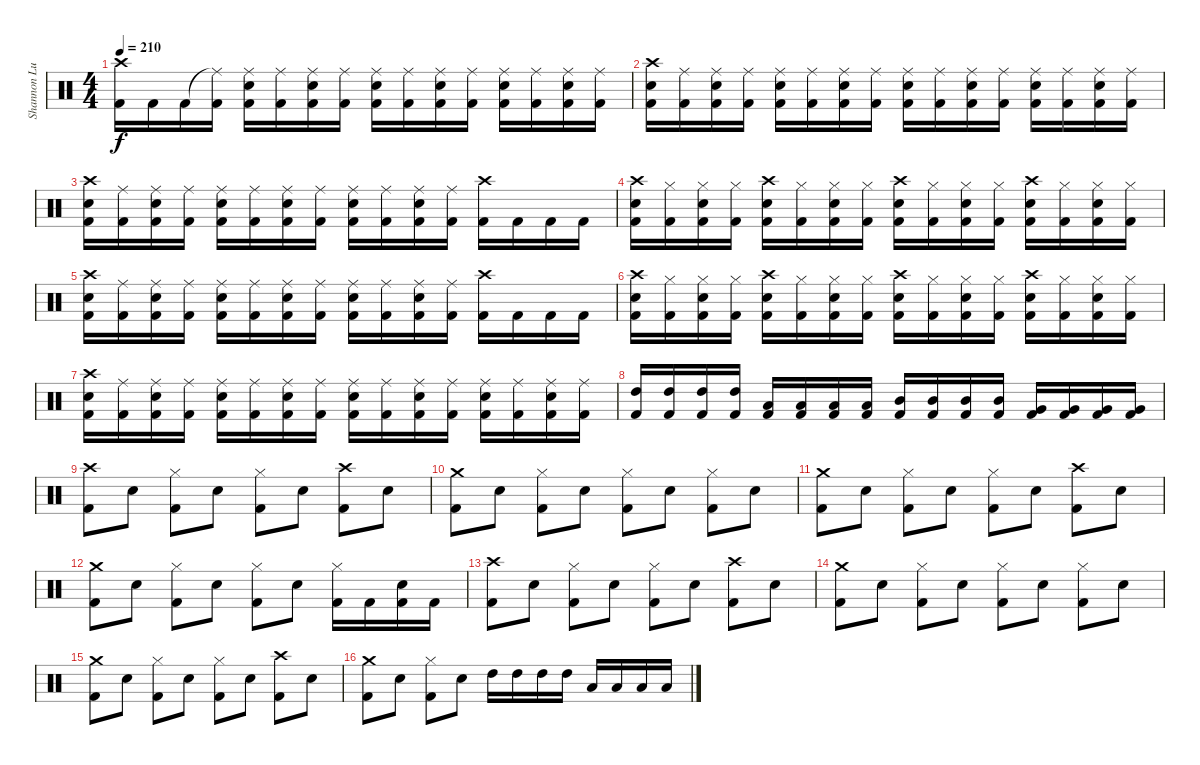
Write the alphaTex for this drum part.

\track ("Shannon Lucas" "Shannon Lu") {instrument percussion}
\staff {score}
\articulation defaults
\ts (4 4)
\tempo 210
\clef neutral
\ks c
("Crash high (hit)" "Kick (hit) 2").16{dy f} "Kick (hit) 2".16 "Kick (hit) 2".16 ("Ride (middle)"{t} "Kick (hit) 2").16 ("Ride (middle)" "Electric Snare (hit)" "Kick (hit) 2").16 ("Ride (middle)" "Kick (hit) 2").16 ("Ride (middle)" "Electric Snare (hit)" "Kick (hit) 2").16 ("Ride (middle)" "Kick (hit) 2").16 ("Ride (middle)" "Electric Snare (hit)" "Kick (hit) 2").16 ("Ride (middle)" "Kick (hit) 2").16 ("Ride (middle)" "Electric Snare (hit)" "Kick (hit) 2").16 ("Ride (middle)" "Kick (hit) 2").16 ("Ride (middle)" "Electric Snare (hit)" "Kick (hit) 2").16 ("Ride (middle)" "Kick (hit) 2").16 ("Ride (middle)" "Electric Snare (hit)" "Kick (hit) 2").16 ("Ride (middle)" "Kick (hit) 2").16 |
("Crash high (hit)" "Electric Snare (hit)" "Kick (hit) 2").16 ("Ride (middle)" "Kick (hit) 2").16 ("Ride (middle)" "Electric Snare (hit)" "Kick (hit) 2").16 ("Ride (middle)" "Kick (hit) 2").16 ("Ride (middle)" "Electric Snare (hit)" "Kick (hit) 2").16 ("Ride (middle)" "Kick (hit) 2").16 ("Ride (middle)" "Electric Snare (hit)" "Kick (hit) 2").16 ("Ride (middle)" "Kick (hit) 2").16 ("Ride (middle)" "Electric Snare (hit)" "Kick (hit) 2").16 ("Ride (middle)" "Kick (hit) 2").16 ("Ride (middle)" "Electric Snare (hit)" "Kick (hit) 2").16 ("Ride (middle)" "Kick (hit) 2").16 ("Ride (middle)" "Electric Snare (hit)" "Kick (hit) 2").16 ("Ride (middle)" "Kick (hit) 2").16 ("Ride (middle)" "Electric Snare (hit)" "Kick (hit) 2").16 ("Ride (middle)" "Kick (hit) 2").16 |
("Crash high (hit)" "Electric Snare (hit)" "Kick (hit) 2").16 ("Ride (middle)" "Kick (hit) 2").16 ("Ride (middle)" "Electric Snare (hit)" "Kick (hit) 2").16 ("Ride (middle)" "Kick (hit) 2").16 ("Ride (middle)" "Electric Snare (hit)" "Kick (hit) 2").16 ("Ride (middle)" "Kick (hit) 2").16 ("Ride (middle)" "Electric Snare (hit)" "Kick (hit) 2").16 ("Ride (middle)" "Kick (hit) 2").16 ("Ride (middle)" "Electric Snare (hit)" "Kick (hit) 2").16 ("Ride (middle)" "Kick (hit) 2").16 ("Ride (middle)" "Electric Snare (hit)" "Kick (hit) 2").16 ("Ride (middle)" "Kick (hit) 2").16 ("Crash high (hit)" "Kick (hit) 2").16 "Kick (hit) 2".16 "Kick (hit) 2".16 "Kick (hit) 2".16 |
("Crash high (hit)" "Electric Snare (hit)" "Kick (hit) 2").16 ("Hi-Hat (closed)" "Kick (hit) 2").16 ("Hi-Hat (closed)" "Electric Snare (hit)" "Kick (hit) 2").16 ("Hi-Hat (closed)" "Kick (hit) 2").16 ("Crash high (hit)" "Electric Snare (hit)" "Kick (hit) 2").16 ("Hi-Hat (closed)" "Kick (hit) 2").16 ("Hi-Hat (closed)" "Electric Snare (hit)" "Kick (hit) 2").16 ("Hi-Hat (closed)" "Kick (hit) 2").16 ("Crash high (hit)" "Electric Snare (hit)" "Kick (hit) 2").16 ("Hi-Hat (closed)" "Kick (hit) 2").16 ("Hi-Hat (closed)" "Electric Snare (hit)" "Kick (hit) 2").16 ("Hi-Hat (closed)" "Kick (hit) 2").16 ("Crash high (hit)" "Electric Snare (hit)" "Kick (hit) 2").16 ("Hi-Hat (closed)" "Kick (hit) 2").16 ("Hi-Hat (closed)" "Electric Snare (hit)" "Kick (hit) 2").16 ("Hi-Hat (closed)" "Kick (hit) 2").16 |
("Crash high (hit)" "Electric Snare (hit)" "Kick (hit) 2").16 ("Ride (middle)" "Kick (hit) 2").16 ("Ride (middle)" "Electric Snare (hit)" "Kick (hit) 2").16 ("Ride (middle)" "Kick (hit) 2").16 ("Ride (middle)" "Electric Snare (hit)" "Kick (hit) 2").16 ("Ride (middle)" "Kick (hit) 2").16 ("Ride (middle)" "Electric Snare (hit)" "Kick (hit) 2").16 ("Ride (middle)" "Kick (hit) 2").16 ("Ride (middle)" "Electric Snare (hit)" "Kick (hit) 2").16 ("Ride (middle)" "Kick (hit) 2").16 ("Ride (middle)" "Electric Snare (hit)" "Kick (hit) 2").16 ("Ride (middle)" "Kick (hit) 2").16 ("Crash high (hit)" "Kick (hit) 2").16 "Kick (hit) 2".16 "Kick (hit) 2".16 "Kick (hit) 2".16 |
("Crash high (hit)" "Electric Snare (hit)" "Kick (hit) 2").16 ("Hi-Hat (closed)" "Kick (hit) 2").16 ("Hi-Hat (closed)" "Electric Snare (hit)" "Kick (hit) 2").16 ("Hi-Hat (closed)" "Kick (hit) 2").16 ("Crash high (hit)" "Electric Snare (hit)" "Kick (hit) 2").16 ("Hi-Hat (closed)" "Kick (hit) 2").16 ("Hi-Hat (closed)" "Electric Snare (hit)" "Kick (hit) 2").16 ("Hi-Hat (closed)" "Kick (hit) 2").16 ("Crash high (hit)" "Electric Snare (hit)" "Kick (hit) 2").16 ("Hi-Hat (closed)" "Kick (hit) 2").16 ("Hi-Hat (closed)" "Electric Snare (hit)" "Kick (hit) 2").16 ("Hi-Hat (closed)" "Kick (hit) 2").16 ("Crash high (hit)" "Electric Snare (hit)" "Kick (hit) 2").16 ("Hi-Hat (closed)" "Kick (hit) 2").16 ("Hi-Hat (closed)" "Electric Snare (hit)" "Kick (hit) 2").16 ("Hi-Hat (closed)" "Kick (hit) 2").16 |
("Crash high (hit)" "Electric Snare (hit)" "Kick (hit) 2").16 ("Ride (middle)" "Kick (hit) 2").16 ("Ride (middle)" "Electric Snare (hit)" "Kick (hit) 2").16 ("Ride (middle)" "Kick (hit) 2").16 ("Ride (middle)" "Electric Snare (hit)" "Kick (hit) 2").16 ("Ride (middle)" "Kick (hit) 2").16 ("Ride (middle)" "Electric Snare (hit)" "Kick (hit) 2").16 ("Ride (middle)" "Kick (hit) 2").16 ("Ride (middle)" "Electric Snare (hit)" "Kick (hit) 2").16 ("Ride (middle)" "Kick (hit) 2").16 ("Ride (middle)" "Electric Snare (hit)" "Kick (hit) 2").16 ("Ride (middle)" "Kick (hit) 2").16 ("Ride (middle)" "Electric Snare (hit)" "Kick (hit) 2").16 ("Ride (middle)" "Kick (hit) 2").16 ("Ride (middle)" "Electric Snare (hit)" "Kick (hit) 2").16 ("Ride (middle)" "Kick (hit) 2").16 |
("High Tom (hit)" "Kick (hit) 2").16 ("High Tom (hit)" "Kick (hit) 2").16 ("High Tom (hit)" "Kick (hit) 2").16 ("High Tom (hit)" "Kick (hit) 2").16 ("Low Tom (hit)" "Kick (hit) 2").16 ("Low Tom (hit)" "Kick (hit) 2").16 ("Low Tom (hit)" "Kick (hit) 2").16 ("Low Tom (hit)" "Kick (hit) 2").16 ("Mid Tom (hit)" "Kick (hit) 2").16 ("Mid Tom (hit)" "Kick (hit) 2").16 ("Mid Tom (hit)" "Kick (hit) 2").16 ("Mid Tom (hit)" "Kick (hit) 2").16 ("Very Low Tom (hit)" "Kick (hit) 2").16 ("Very Low Tom (hit)" "Kick (hit) 2").16 ("Very Low Tom (hit)" "Kick (hit) 2").16 ("Very Low Tom (hit)" "Kick (hit) 2").16 |
("Crash high (hit)" "Kick (hit) 2").8 "Electric Snare (hit)".8 ("Hi-Hat (closed)" "Kick (hit) 2").8 "Electric Snare (hit)".8 ("Hi-Hat (closed)" "Kick (hit) 2").8 "Electric Snare (hit)".8 ("Crash high (hit)" "Kick (hit) 2").8 "Electric Snare (hit)".8 |
("Crash medium (hit)" "Kick (hit) 2").8 "Electric Snare (hit)".8 ("Hi-Hat (closed)" "Kick (hit) 2").8 "Electric Snare (hit)".8 ("Hi-Hat (closed)" "Kick (hit) 2").8 "Electric Snare (hit)".8 ("Hi-Hat (closed)" "Kick (hit) 2").8 "Electric Snare (hit)".8 |
("Crash medium (hit)" "Kick (hit) 2").8 "Electric Snare (hit)".8 ("Hi-Hat (closed)" "Kick (hit) 2").8 "Electric Snare (hit)".8 ("Hi-Hat (closed)" "Kick (hit) 2").8 "Electric Snare (hit)".8 ("Crash high (hit)" "Kick (hit) 2").8 "Electric Snare (hit)".8 |
("Crash medium (hit)" "Kick (hit) 2").8 "Electric Snare (hit)".8 ("Hi-Hat (closed)" "Kick (hit) 2").8 "Electric Snare (hit)".8 ("Hi-Hat (closed)" "Kick (hit) 2").8 "Electric Snare (hit)".8 ("Hi-Hat (closed)" "Kick (hit) 2").16 "Kick (hit) 2".16 ("Electric Snare (hit)" "Kick (hit) 2").16 "Kick (hit) 2".16 |
("Crash high (hit)" "Kick (hit) 2").8 "Electric Snare (hit)".8 ("Hi-Hat (closed)" "Kick (hit) 2").8 "Electric Snare (hit)".8 ("Hi-Hat (closed)" "Kick (hit) 2").8 "Electric Snare (hit)".8 ("Crash high (hit)" "Kick (hit) 2").8 "Electric Snare (hit)".8 |
("Crash medium (hit)" "Kick (hit) 2").8 "Electric Snare (hit)".8 ("Hi-Hat (closed)" "Kick (hit) 2").8 "Electric Snare (hit)".8 ("Hi-Hat (closed)" "Kick (hit) 2").8 "Electric Snare (hit)".8 ("Hi-Hat (closed)" "Kick (hit) 2").8 "Electric Snare (hit)".8 |
("Crash medium (hit)" "Kick (hit) 2").8 "Electric Snare (hit)".8 ("Hi-Hat (closed)" "Kick (hit) 2").8 "Electric Snare (hit)".8 ("Hi-Hat (closed)" "Kick (hit) 2").8 "Electric Snare (hit)".8 ("Crash high (hit)" "Kick (hit) 2").8 "Electric Snare (hit)".8 |
("Crash medium (hit)" "Kick (hit) 2").8 "Electric Snare (hit)".8 ("Hi-Hat (closed)" "Kick (hit) 2").8 "Electric Snare (hit)".8 "High Tom (hit)".16 "High Tom (hit)".16 "High Tom (hit)".16 "High Tom (hit)".16 "Low Tom (hit)".16 "Low Tom (hit)".16 "Low Tom (hit)".16 "Low Tom (hit)".16
